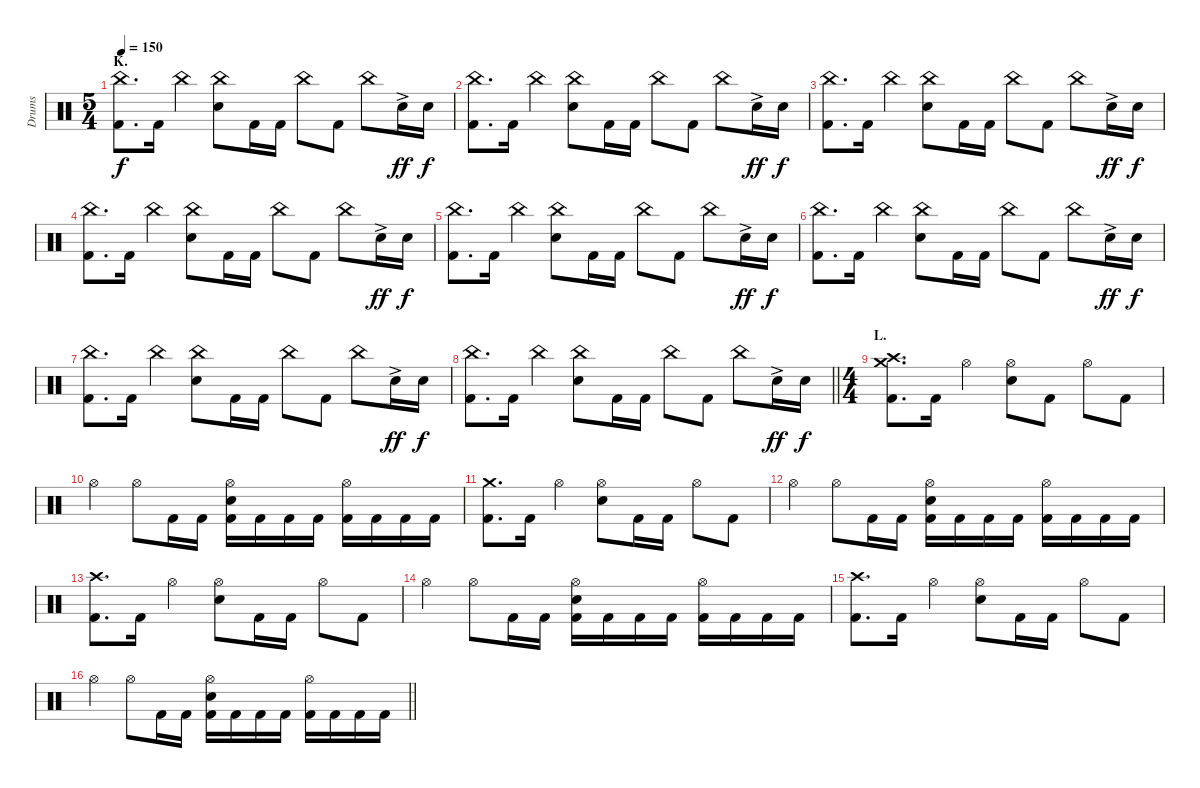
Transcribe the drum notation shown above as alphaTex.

\track ("Drums" "Drums") {instrument percussion}
\staff {score}
\articulation defaults
\ts (5 4)
\section ("" "K.")
\tempo 150
\clef neutral
\ks c
("China (hit)" "Kick (hit) 2").8{d dy f} "Kick (hit) 2".16 "China (hit)".4 ("China (hit)" "Electric Snare (hit)").8 "Kick (hit) 2".16 "Kick (hit) 2".16 "China (hit)".8 "Kick (hit) 2".8 "China (hit)".8 "Electric Snare (hit)"{ac}.16{dy ff} "Electric Snare (hit)".16{dy f} |
("China (hit)" "Kick (hit) 2").8{d} "Kick (hit) 2".16 "China (hit)".4 ("China (hit)" "Electric Snare (hit)").8 "Kick (hit) 2".16 "Kick (hit) 2".16 "China (hit)".8 "Kick (hit) 2".8 "China (hit)".8 "Electric Snare (hit)"{ac}.16{dy ff} "Electric Snare (hit)".16{dy f} |
("China (hit)" "Kick (hit) 2").8{d} "Kick (hit) 2".16 "China (hit)".4 ("China (hit)" "Electric Snare (hit)").8 "Kick (hit) 2".16 "Kick (hit) 2".16 "China (hit)".8 "Kick (hit) 2".8 "China (hit)".8 "Electric Snare (hit)"{ac}.16{dy ff} "Electric Snare (hit)".16{dy f} |
("China (hit)" "Kick (hit) 2").8{d} "Kick (hit) 2".16 "China (hit)".4 ("China (hit)" "Electric Snare (hit)").8 "Kick (hit) 2".16 "Kick (hit) 2".16 "China (hit)".8 "Kick (hit) 2".8 "China (hit)".8 "Electric Snare (hit)"{ac}.16{dy ff} "Electric Snare (hit)".16{dy f} |
("China (hit)" "Kick (hit) 2").8{d} "Kick (hit) 2".16 "China (hit)".4 ("China (hit)" "Electric Snare (hit)").8 "Kick (hit) 2".16 "Kick (hit) 2".16 "China (hit)".8 "Kick (hit) 2".8 "China (hit)".8 "Electric Snare (hit)"{ac}.16{dy ff} "Electric Snare (hit)".16{dy f} |
("China (hit)" "Kick (hit) 2").8{d} "Kick (hit) 2".16 "China (hit)".4 ("China (hit)" "Electric Snare (hit)").8 "Kick (hit) 2".16 "Kick (hit) 2".16 "China (hit)".8 "Kick (hit) 2".8 "China (hit)".8 "Electric Snare (hit)"{ac}.16{dy ff} "Electric Snare (hit)".16{dy f} |
("China (hit)" "Kick (hit) 2").8{d} "Kick (hit) 2".16 "China (hit)".4 ("China (hit)" "Electric Snare (hit)").8 "Kick (hit) 2".16 "Kick (hit) 2".16 "China (hit)".8 "Kick (hit) 2".8 "China (hit)".8 "Electric Snare (hit)"{ac}.16{dy ff} "Electric Snare (hit)".16{dy f} |
\barLineRight lightlight
("China (hit)" "Kick (hit) 2").8{d} "Kick (hit) 2".16 "China (hit)".4 ("China (hit)" "Electric Snare (hit)").8 "Kick (hit) 2".16 "Kick (hit) 2".16 "China (hit)".8 "Kick (hit) 2".8 "China (hit)".8 "Electric Snare (hit)"{ac}.16{dy ff} "Electric Snare (hit)".16{dy f} |
\ts (4 4)
\section ("" "L.")
("Crash medium (hit)" "Crash high (hit)" "Kick (hit) 2").8{d} "Kick (hit) 2".16 "Hi-Hat (open)".4 ("Hi-Hat (open)" "Electric Snare (hit)").8 "Kick (hit) 2".8 "Hi-Hat (open)".8 "Kick (hit) 2".8 |
"Hi-Hat (open)".4 "Hi-Hat (open)".8 "Kick (hit) 2".16 "Kick (hit) 2".16 ("Hi-Hat (open)" "Electric Snare (hit)" "Kick (hit) 2").16 "Kick (hit) 2".16 "Kick (hit) 2".16 "Kick (hit) 2".16 ("Hi-Hat (open)" "Kick (hit) 2").16 "Kick (hit) 2".16 "Kick (hit) 2".16 "Kick (hit) 2".16 |
("Crash medium (hit)" "Kick (hit) 2").8{d} "Kick (hit) 2".16 "Hi-Hat (open)".4 ("Hi-Hat (open)" "Electric Snare (hit)").8 "Kick (hit) 2".16 "Kick (hit) 2".16 "Hi-Hat (open)".8 "Kick (hit) 2".8 |
"Hi-Hat (open)".4 "Hi-Hat (open)".8 "Kick (hit) 2".16 "Kick (hit) 2".16 ("Hi-Hat (open)" "Electric Snare (hit)" "Kick (hit) 2").16 "Kick (hit) 2".16 "Kick (hit) 2".16 "Kick (hit) 2".16 ("Hi-Hat (open)" "Kick (hit) 2").16 "Kick (hit) 2".16 "Kick (hit) 2".16 "Kick (hit) 2".16 |
("Crash high (hit)" "Kick (hit) 2").8{d} "Kick (hit) 2".16 "Hi-Hat (open)".4 ("Hi-Hat (open)" "Electric Snare (hit)").8 "Kick (hit) 2".16 "Kick (hit) 2".16 "Hi-Hat (open)".8 "Kick (hit) 2".8 |
"Hi-Hat (open)".4 "Hi-Hat (open)".8 "Kick (hit) 2".16 "Kick (hit) 2".16 ("Hi-Hat (open)" "Electric Snare (hit)" "Kick (hit) 2").16 "Kick (hit) 2".16 "Kick (hit) 2".16 "Kick (hit) 2".16 ("Hi-Hat (open)" "Kick (hit) 2").16 "Kick (hit) 2".16 "Kick (hit) 2".16 "Kick (hit) 2".16 |
("Crash high (hit)" "Kick (hit) 2").8{d} "Kick (hit) 2".16 "Hi-Hat (open)".4 ("Hi-Hat (open)" "Electric Snare (hit)").8 "Kick (hit) 2".16 "Kick (hit) 2".16 "Hi-Hat (open)".8 "Kick (hit) 2".8 |
\barLineRight lightlight "Hi-Hat (open)".4 "Hi-Hat (open)".8 "Kick (hit) 2".16 "Kick (hit) 2".16
("Hi-Hat (open)" "Electric Snare (hit)" "Kick (hit) 2").16 "Kick (hit) 2".16 "Kick (hit) 2".16 "Kick (hit) 2".16 ("Hi-Hat (open)" "Kick (hit) 2").16 "Kick (hit) 2".16 "Kick (hit) 2".16 "Kick (hit) 2".16
